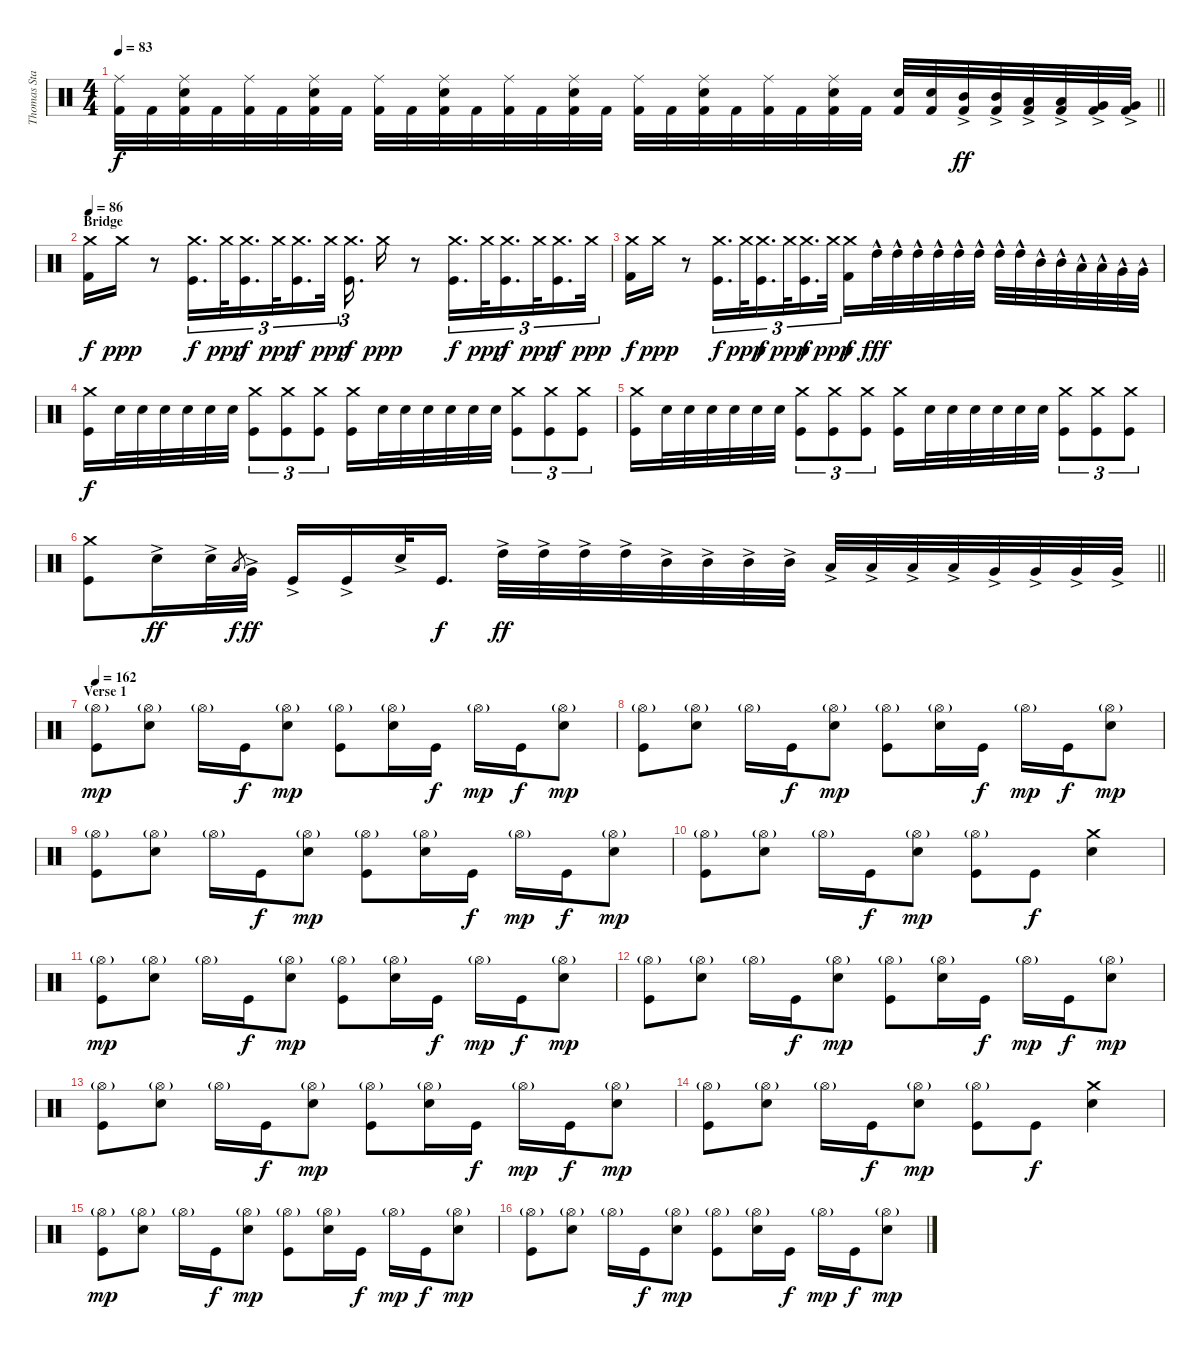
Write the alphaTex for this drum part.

\track ("Thomas Stauch" "Thomas Sta") {instrument percussion}
\staff {score}
\articulation defaults
\ts (4 4)
\tempo 83
\clef neutral
\barLineRight lightlight
\ks c
("Ride (middle)" "Kick (hit) 2").32{dy f} "Kick (hit) 2".32 ("Ride (middle)" "Electric Snare (hit)" "Kick (hit) 2").32 "Kick (hit) 2".32 ("Ride (middle)" "Kick (hit) 2").32 "Kick (hit) 2".32 ("Ride (middle)" "Electric Snare (hit)" "Kick (hit) 2").32 "Kick (hit) 2".32 ("Ride (middle)" "Kick (hit) 2").32 "Kick (hit) 2".32 ("Ride (middle)" "Electric Snare (hit)" "Kick (hit) 2").32 "Kick (hit) 2".32 ("Ride (middle)" "Kick (hit) 2").32 "Kick (hit) 2".32 ("Ride (middle)" "Electric Snare (hit)" "Kick (hit) 2").32 "Kick (hit) 2".32 ("Ride (middle)" "Kick (hit) 2").32 "Kick (hit) 2".32 ("Ride (middle)" "Electric Snare (hit)" "Kick (hit) 2").32 "Kick (hit) 2".32 ("Ride (middle)" "Kick (hit) 2").32 "Kick (hit) 2".32 ("Ride (middle)" "Electric Snare (hit)" "Kick (hit) 2").32 "Kick (hit) 2".32 ("Electric Snare (hit)" "Kick (hit) 2").32 ("Electric Snare (hit)" "Kick (hit) 2").32 ("Mid Tom (hit)"{ac} "Kick (hit) 2").32{dy ff} ("Mid Tom (hit)"{ac} "Kick (hit) 2").32 ("Low Tom (hit)"{ac} "Kick (hit) 2").32 ("Low Tom (hit)"{ac} "Kick (hit) 2").32 ("Very Low Tom (hit)"{ac} "Kick (hit) 2").32 ("Very Low Tom (hit)"{ac} "Kick (hit) 2").32 |
\section ("" "Bridge")
\tempo 86
("Crash medium (hit)" "Kick (hit) 2").16{dy f} "Crash medium (hit)".16{dy ppp} r.8 ("Crash medium (hit)" "Kick (hit)").16{d tu (3 2) dy f} "Crash medium (hit)".32{tu (3 2) dy ppp} ("Crash medium (hit)" "Kick (hit)").16{d tu (3 2) dy f} "Crash medium (hit)".32{tu (3 2) dy ppp} ("Crash medium (hit)" "Kick (hit)").16{d tu (3 2) dy f} "Crash medium (hit)".32{tu (3 2) dy ppp} ("Crash medium (hit)" "Kick (hit)").16{d tu (3 2) dy f} "Crash medium (hit)".16{dy ppp} r.8 ("Crash medium (hit)" "Kick (hit)").16{d tu (3 2) dy f} "Crash medium (hit)".32{tu (3 2) dy ppp} ("Crash medium (hit)" "Kick (hit)").16{d tu (3 2) dy f} "Crash medium (hit)".32{tu (3 2) dy ppp} ("Crash medium (hit)" "Kick (hit)").16{d tu (3 2) dy f} "Crash medium (hit)".32{tu (3 2) dy ppp} |
("Crash medium (hit)" "Kick (hit) 2").16{dy f} "Crash medium (hit)".16{dy ppp} r.8 ("Crash medium (hit)" "Kick (hit)").16{d tu (3 2) dy f} "Crash medium (hit)".32{tu (3 2) dy ppp} ("Crash medium (hit)" "Kick (hit)").16{d tu (3 2) dy f} "Crash medium (hit)".32{tu (3 2) dy ppp} ("Crash medium (hit)" "Kick (hit)").16{d tu (3 2) dy f} "Crash medium (hit)".32{tu (3 2) dy ppp} ("Crash medium (hit)" "Kick (hit) 2").16{dy f} "High Tom (hit)"{hac}.32{dy fff} "High Tom (hit)"{hac}.32 "High Tom (hit)"{hac}.32 "High Tom (hit)"{hac}.32 "High Tom (hit)"{hac}.32 "High Tom (hit)"{hac}.32 "High Tom (hit)"{hac}.32 "High Tom (hit)"{hac}.32 "Mid Tom (hit)"{hac}.32 "Mid Tom (hit)"{hac}.32 "Low Tom (hit)"{hac}.32 "Low Tom (hit)"{hac}.32 "Very Low Tom (hit)"{hac}.32 "Very Low Tom (hit)"{hac}.32 |
("Crash medium (hit)" "Kick (hit)").16{dy f} "Electric Snare (hit)".32 "Electric Snare (hit)".32 "Electric Snare (hit)".32 "Electric Snare (hit)".32 "Electric Snare (hit)".32 "Electric Snare (hit)".32 ("Crash medium (hit)" "Kick (hit)").8{tu (3 2)} ("Crash medium (hit)" "Kick (hit)").8{tu (3 2)} ("Crash medium (hit)" "Kick (hit)").8{tu (3 2)} ("Crash medium (hit)" "Kick (hit)").16 "Electric Snare (hit)".32 "Electric Snare (hit)".32 "Electric Snare (hit)".32 "Electric Snare (hit)".32 "Electric Snare (hit)".32 "Electric Snare (hit)".32 ("Crash medium (hit)" "Kick (hit)").8{tu (3 2)} ("Crash medium (hit)" "Kick (hit)").8{tu (3 2)} ("Crash medium (hit)" "Kick (hit)").8{tu (3 2)} |
("Crash medium (hit)" "Kick (hit)").16 "Electric Snare (hit)".32 "Electric Snare (hit)".32 "Electric Snare (hit)".32 "Electric Snare (hit)".32 "Electric Snare (hit)".32 "Electric Snare (hit)".32 ("Crash medium (hit)" "Kick (hit)").8{tu (3 2)} ("Crash medium (hit)" "Kick (hit)").8{tu (3 2)} ("Crash medium (hit)" "Kick (hit)").8{tu (3 2)} ("Crash medium (hit)" "Kick (hit)").16 "Electric Snare (hit)".32 "Electric Snare (hit)".32 "Electric Snare (hit)".32 "Electric Snare (hit)".32 "Electric Snare (hit)".32 "Electric Snare (hit)".32 ("Crash medium (hit)" "Kick (hit)").8{tu (3 2)} ("Crash medium (hit)" "Kick (hit)").8{tu (3 2)} ("Crash medium (hit)" "Kick (hit)").8{tu (3 2)} |
\barLineRight lightlight
("Crash medium (hit)" "Kick (hit)").8 "Electric Snare (hit)"{ac}.16{dy ff} "Electric Snare (hit)"{ac}.32 "Low Floor Tom (hit)".8{gr dy f} "Very Low Tom (hit)"{ac}.32{dy ff} "Kick (hit)"{ac}.16 "Kick (hit)"{ac}.16 "Electric Snare (hit)"{ac}.32 "Kick (hit)".16{d dy f} "High Tom (hit)"{ac}.32{dy ff} "High Tom (hit)"{ac}.32 "High Tom (hit)"{ac}.32 "High Tom (hit)"{ac}.32 "Mid Tom (hit)"{ac}.32 "Mid Tom (hit)"{ac}.32 "Mid Tom (hit)"{ac}.32 "Mid Tom (hit)"{ac}.32 "Low Tom (hit)"{ac}.32 "Low Tom (hit)"{ac}.32 "Low Tom (hit)"{ac}.32 "Low Tom (hit)"{ac}.32 "Very Low Tom (hit)"{ac}.32 "Very Low Tom (hit)"{ac}.32 "Very Low Tom (hit)"{ac}.32 "Very Low Tom (hit)"{ac}.32 |
\section ("" "Verse 1")
\tempo 162
("Hi-Hat (open)"{g} "Kick (hit)").8{dy mp} ("Hi-Hat (open)"{g} "Electric Snare (hit)").8 "Hi-Hat (open)"{g}.16 "Kick (hit)".16{dy f} ("Hi-Hat (open)"{g} "Electric Snare (hit)").8{dy mp} ("Hi-Hat (open)"{g} "Kick (hit)").8 ("Hi-Hat (open)"{g} "Electric Snare (hit)").16 "Kick (hit)".16{dy f} "Hi-Hat (open)"{g}.16{dy mp} "Kick (hit)".16{dy f} ("Hi-Hat (open)"{g} "Electric Snare (hit)").8{dy mp} |
("Hi-Hat (open)"{g} "Kick (hit)").8 ("Hi-Hat (open)"{g} "Electric Snare (hit)").8 "Hi-Hat (open)"{g}.16 "Kick (hit)".16{dy f} ("Hi-Hat (open)"{g} "Electric Snare (hit)").8{dy mp} ("Hi-Hat (open)"{g} "Kick (hit)").8 ("Hi-Hat (open)"{g} "Electric Snare (hit)").16 "Kick (hit)".16{dy f} "Hi-Hat (open)"{g}.16{dy mp} "Kick (hit)".16{dy f} ("Hi-Hat (open)"{g} "Electric Snare (hit)").8{dy mp} |
("Hi-Hat (open)"{g} "Kick (hit)").8 ("Hi-Hat (open)"{g} "Electric Snare (hit)").8 "Hi-Hat (open)"{g}.16 "Kick (hit)".16{dy f} ("Hi-Hat (open)"{g} "Electric Snare (hit)").8{dy mp} ("Hi-Hat (open)"{g} "Kick (hit)").8 ("Hi-Hat (open)"{g} "Electric Snare (hit)").16 "Kick (hit)".16{dy f} "Hi-Hat (open)"{g}.16{dy mp} "Kick (hit)".16{dy f} ("Hi-Hat (open)"{g} "Electric Snare (hit)").8{dy mp} |
("Hi-Hat (open)"{g} "Kick (hit)").8 ("Hi-Hat (open)"{g} "Electric Snare (hit)").8 "Hi-Hat (open)"{g}.16 "Kick (hit)".16{dy f} ("Hi-Hat (open)"{g} "Electric Snare (hit)").8{dy mp} ("Hi-Hat (open)"{g} "Kick (hit)").8 "Kick (hit)".8{dy f} ("Crash medium (hit)" "Electric Snare (hit)").4 |
("Hi-Hat (open)"{g} "Kick (hit)").8{dy mp} ("Hi-Hat (open)"{g} "Electric Snare (hit)").8 "Hi-Hat (open)"{g}.16 "Kick (hit)".16{dy f} ("Hi-Hat (open)"{g} "Electric Snare (hit)").8{dy mp} ("Hi-Hat (open)"{g} "Kick (hit)").8 ("Hi-Hat (open)"{g} "Electric Snare (hit)").16 "Kick (hit)".16{dy f} "Hi-Hat (open)"{g}.16{dy mp} "Kick (hit)".16{dy f} ("Hi-Hat (open)"{g} "Electric Snare (hit)").8{dy mp} |
("Hi-Hat (open)"{g} "Kick (hit)").8 ("Hi-Hat (open)"{g} "Electric Snare (hit)").8 "Hi-Hat (open)"{g}.16 "Kick (hit)".16{dy f} ("Hi-Hat (open)"{g} "Electric Snare (hit)").8{dy mp} ("Hi-Hat (open)"{g} "Kick (hit)").8 ("Hi-Hat (open)"{g} "Electric Snare (hit)").16 "Kick (hit)".16{dy f} "Hi-Hat (open)"{g}.16{dy mp} "Kick (hit)".16{dy f} ("Hi-Hat (open)"{g} "Electric Snare (hit)").8{dy mp} |
("Hi-Hat (open)"{g} "Kick (hit)").8 ("Hi-Hat (open)"{g} "Electric Snare (hit)").8 "Hi-Hat (open)"{g}.16 "Kick (hit)".16{dy f} ("Hi-Hat (open)"{g} "Electric Snare (hit)").8{dy mp} ("Hi-Hat (open)"{g} "Kick (hit)").8 ("Hi-Hat (open)"{g} "Electric Snare (hit)").16 "Kick (hit)".16{dy f} "Hi-Hat (open)"{g}.16{dy mp} "Kick (hit)".16{dy f} ("Hi-Hat (open)"{g} "Electric Snare (hit)").8{dy mp} |
("Hi-Hat (open)"{g} "Kick (hit)").8 ("Hi-Hat (open)"{g} "Electric Snare (hit)").8 "Hi-Hat (open)"{g}.16 "Kick (hit)".16{dy f} ("Hi-Hat (open)"{g} "Electric Snare (hit)").8{dy mp} ("Hi-Hat (open)"{g} "Kick (hit)").8 "Kick (hit)".8{dy f} ("Crash medium (hit)" "Electric Snare (hit)").4 |
("Hi-Hat (open)"{g} "Kick (hit)").8{dy mp} ("Hi-Hat (open)"{g} "Electric Snare (hit)").8 "Hi-Hat (open)"{g}.16 "Kick (hit)".16{dy f} ("Hi-Hat (open)"{g} "Electric Snare (hit)").8{dy mp} ("Hi-Hat (open)"{g} "Kick (hit)").8 ("Hi-Hat (open)"{g} "Electric Snare (hit)").16 "Kick (hit)".16{dy f} "Hi-Hat (open)"{g}.16{dy mp} "Kick (hit)".16{dy f} ("Hi-Hat (open)"{g} "Electric Snare (hit)").8{dy mp} |
("Hi-Hat (open)"{g} "Kick (hit)").8 ("Hi-Hat (open)"{g} "Electric Snare (hit)").8 "Hi-Hat (open)"{g}.16 "Kick (hit)".16{dy f} ("Hi-Hat (open)"{g} "Electric Snare (hit)").8{dy mp} ("Hi-Hat (open)"{g} "Kick (hit)").8 ("Hi-Hat (open)"{g} "Electric Snare (hit)").16 "Kick (hit)".16{dy f} "Hi-Hat (open)"{g}.16{dy mp} "Kick (hit)".16{dy f} ("Hi-Hat (open)"{g} "Electric Snare (hit)").8{dy mp}
